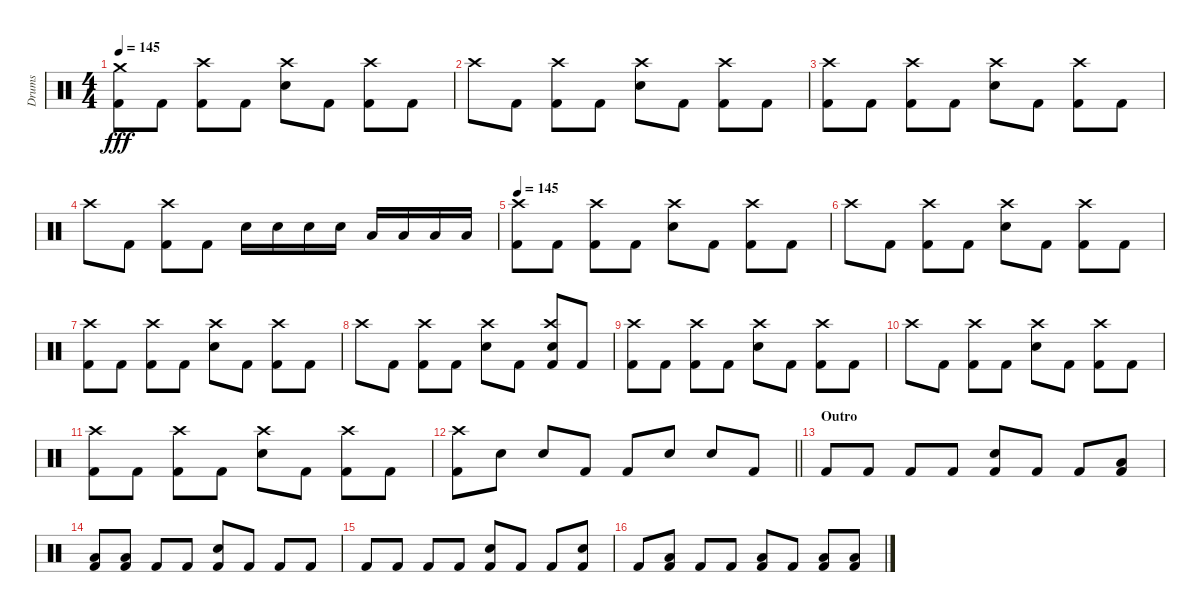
\track ("Drums" "Drums") {instrument percussion}
\staff {score}
\articulation defaults
\ts (4 4)
\tempo 145
\clef neutral
\ks c
("Crash medium (hit)" "Kick (hit) 2").8{dy fff} "Kick (hit) 2".8 ("Crash high (hit)" "Kick (hit) 2").8 "Kick (hit) 2".8 ("Crash high (hit)" "Electric Snare (hit)").8 "Kick (hit) 2".8 ("Crash high (hit)" "Kick (hit) 2").8 "Kick (hit) 2".8 |
"Crash high (hit)".8 "Kick (hit) 2".8 ("Crash high (hit)" "Kick (hit) 2").8 "Kick (hit) 2".8 ("Crash high (hit)" "Electric Snare (hit)").8 "Kick (hit) 2".8 ("Crash high (hit)" "Kick (hit) 2").8 "Kick (hit) 2".8 |
("Crash high (hit)" "Kick (hit) 2").8 "Kick (hit) 2".8 ("Crash high (hit)" "Kick (hit) 2").8 "Kick (hit) 2".8 ("Crash high (hit)" "Electric Snare (hit)").8 "Kick (hit) 2".8 ("Crash high (hit)" "Kick (hit) 2").8 "Kick (hit) 2".8 |
"Crash high (hit)".8 "Kick (hit) 2".8 ("Crash high (hit)" "Kick (hit) 2").8 "Kick (hit) 2".8 "Electric Snare (hit)".16 "Electric Snare (hit)".16 "Electric Snare (hit)".16 "Electric Snare (hit)".16 "Low Tom (hit)".16 "Low Tom (hit)".16 "Low Tom (hit)".16 "Low Tom (hit)".16 |
\tempo 145
("Crash high (hit)" "Kick (hit) 2").8 "Kick (hit) 2".8 ("Crash high (hit)" "Kick (hit) 2").8 "Kick (hit) 2".8 ("Crash high (hit)" "Electric Snare (hit)").8 "Kick (hit) 2".8 ("Crash high (hit)" "Kick (hit) 2").8 "Kick (hit) 2".8 |
"Crash high (hit)".8 "Kick (hit) 2".8 ("Crash high (hit)" "Kick (hit) 2").8 "Kick (hit) 2".8 ("Crash high (hit)" "Electric Snare (hit)").8 "Kick (hit) 2".8 ("Crash high (hit)" "Kick (hit) 2").8 "Kick (hit) 2".8 |
("Crash high (hit)" "Kick (hit) 2").8 "Kick (hit) 2".8 ("Crash high (hit)" "Kick (hit) 2").8 "Kick (hit) 2".8 ("Crash high (hit)" "Electric Snare (hit)").8 "Kick (hit) 2".8 ("Crash high (hit)" "Kick (hit) 2").8 "Kick (hit) 2".8 |
"Crash high (hit)".8 "Kick (hit) 2".8 ("Crash high (hit)" "Kick (hit) 2").8 "Kick (hit) 2".8 ("Crash high (hit)" "Electric Snare (hit)").8 "Kick (hit) 2".8 ("Crash high (hit)" "Electric Snare (hit)" "Kick (hit) 2").8 "Kick (hit) 2".8 |
("Crash high (hit)" "Kick (hit) 2").8 "Kick (hit) 2".8 ("Crash high (hit)" "Kick (hit) 2").8 "Kick (hit) 2".8 ("Crash high (hit)" "Electric Snare (hit)").8 "Kick (hit) 2".8 ("Crash high (hit)" "Kick (hit) 2").8 "Kick (hit) 2".8 |
"Crash high (hit)".8 "Kick (hit) 2".8 ("Crash high (hit)" "Kick (hit) 2").8 "Kick (hit) 2".8 ("Crash high (hit)" "Electric Snare (hit)").8 "Kick (hit) 2".8 ("Crash high (hit)" "Kick (hit) 2").8 "Kick (hit) 2".8 |
("Crash high (hit)" "Kick (hit) 2").8 "Kick (hit) 2".8 ("Crash high (hit)" "Kick (hit) 2").8 "Kick (hit) 2".8 ("Crash high (hit)" "Electric Snare (hit)").8 "Kick (hit) 2".8 ("Crash high (hit)" "Kick (hit) 2").8 "Kick (hit) 2".8 |
\barLineRight lightlight
("Crash high (hit)" "Kick (hit) 2").8 "Electric Snare (hit)".8 "Electric Snare (hit)".8 "Kick (hit) 2".8 "Kick (hit) 2".8 "Electric Snare (hit)".8 "Electric Snare (hit)".8 "Kick (hit) 2".8 |
\section ("" "Outro")
"Kick (hit) 2".8 "Kick (hit) 2".8 "Kick (hit) 2".8 "Kick (hit) 2".8 ("Electric Snare (hit)" "Kick (hit) 2").8 "Kick (hit) 2".8 "Kick (hit) 2".8 ("Low Tom (hit)" "Kick (hit) 2").8 |
("Low Tom (hit)" "Kick (hit) 2").8 ("Low Tom (hit)" "Kick (hit) 2").8 "Kick (hit) 2".8 "Kick (hit) 2".8 ("Electric Snare (hit)" "Kick (hit) 2").8 "Kick (hit) 2".8 "Kick (hit) 2".8 "Kick (hit) 2".8 |
"Kick (hit) 2".8 "Kick (hit) 2".8 "Kick (hit) 2".8 "Kick (hit) 2".8 ("Electric Snare (hit)" "Kick (hit) 2").8 "Kick (hit) 2".8 "Kick (hit) 2".8 ("Snare (hit) 2" "Kick (hit) 2").8 |
"Kick (hit) 2".8 ("Low Tom (hit)" "Kick (hit) 2").8 "Kick (hit) 2".8 "Kick (hit) 2".8 ("Low Tom (hit)" "Kick (hit) 2").8 "Kick (hit) 2".8 ("Low Tom (hit)" "Kick (hit) 2").8 ("Low Tom (hit)" "Kick (hit) 2").8
